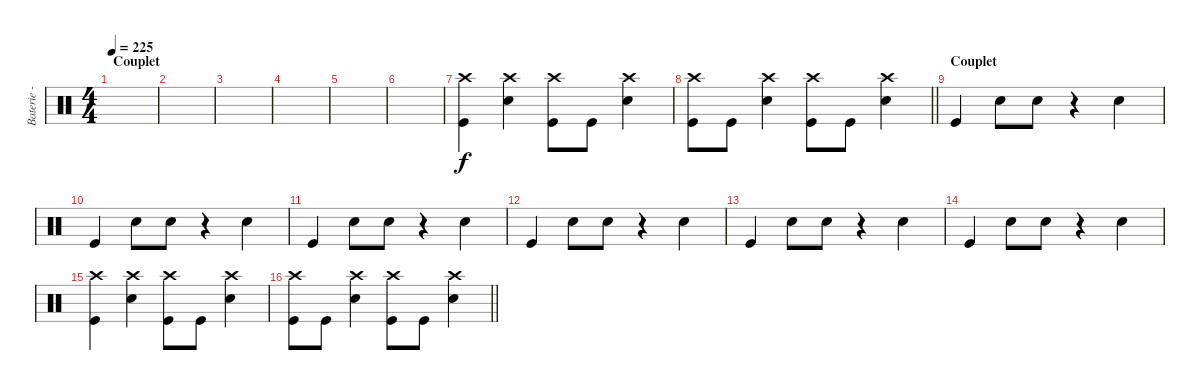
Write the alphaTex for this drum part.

\track ("Baterie - Alex" "Baterie - ") {instrument percussion}
\staff {score}
\articulation defaults
\ts (4 4)
\section ("" "Couplet")
\tempo 225
\clef neutral
\ks c
|
|
|
|
|
|
("Crash high (hit)" "Kick (hit)").4 ("Crash high (hit)" "Electric Snare (hit)").4 ("Crash high (hit)" "Kick (hit)").8 "Kick (hit)".8 ("Crash high (hit)" "Electric Snare (hit)").4 |
\barLineRight lightlight
("Crash high (hit)" "Kick (hit)").8 "Kick (hit)".8 ("Crash high (hit)" "Electric Snare (hit)").4 ("Crash high (hit)" "Kick (hit)").8 "Kick (hit)".8 ("Crash high (hit)" "Electric Snare (hit)").4 |
\section ("" "Couplet")
"Kick (hit)".4 "Electric Snare (hit)".8 "Electric Snare (hit)".8 r.4 "Electric Snare (hit)".4 |
"Kick (hit)".4 "Electric Snare (hit)".8 "Electric Snare (hit)".8 r.4 "Electric Snare (hit)".4 |
"Kick (hit)".4 "Electric Snare (hit)".8 "Electric Snare (hit)".8 r.4 "Electric Snare (hit)".4 |
"Kick (hit)".4 "Electric Snare (hit)".8 "Electric Snare (hit)".8 r.4 "Electric Snare (hit)".4 |
"Kick (hit)".4 "Electric Snare (hit)".8 "Electric Snare (hit)".8 r.4 "Electric Snare (hit)".4 |
"Kick (hit)".4 "Electric Snare (hit)".8 "Electric Snare (hit)".8 r.4 "Electric Snare (hit)".4 |
("Crash high (hit)" "Kick (hit)").4 ("Crash high (hit)" "Electric Snare (hit)").4 ("Crash high (hit)" "Kick (hit)").8 "Kick (hit)".8 ("Crash high (hit)" "Electric Snare (hit)").4 |
\barLineRight lightlight
("Crash high (hit)" "Kick (hit)").8 "Kick (hit)".8 ("Crash high (hit)" "Electric Snare (hit)").4 ("Crash high (hit)" "Kick (hit)").8 "Kick (hit)".8 ("Crash high (hit)" "Electric Snare (hit)").4
